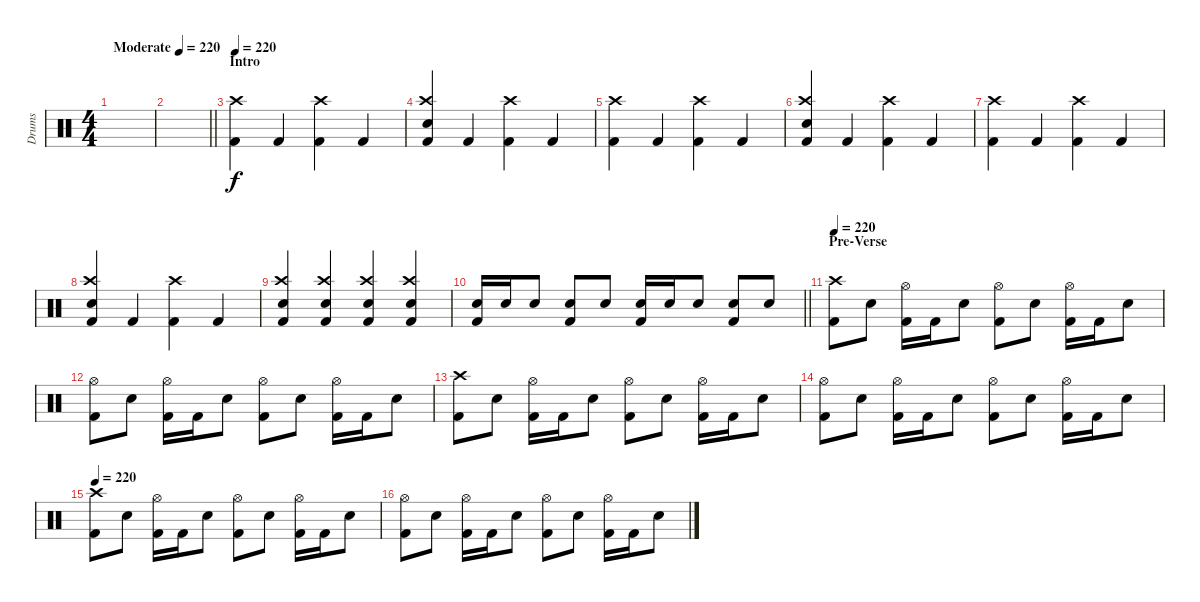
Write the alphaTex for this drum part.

\track ("Drums" "Drums") {instrument percussion}
\staff {score}
\articulation defaults
\ts (4 4)
\tempo (220 "Moderate")
\clef neutral
\ks c
|
\barLineRight lightlight
|
\section ("" "Intro")
\tempo 220
("Kick (hit) 2" "Crash high (hit)").4 "Kick (hit) 2".4 ("Kick (hit) 2" "Crash high (hit)").4 "Kick (hit) 2".4 |
("Kick (hit) 2" "Crash high (hit)" "Electric Snare (hit)").4 "Kick (hit) 2".4 ("Kick (hit) 2" "Crash high (hit)").4 "Kick (hit) 2".4 |
("Kick (hit) 2" "Crash high (hit)").4 "Kick (hit) 2".4 ("Kick (hit) 2" "Crash high (hit)").4 "Kick (hit) 2".4 |
("Kick (hit) 2" "Crash high (hit)" "Electric Snare (hit)").4 "Kick (hit) 2".4 ("Kick (hit) 2" "Crash high (hit)").4 "Kick (hit) 2".4 |
("Kick (hit) 2" "Crash high (hit)").4 "Kick (hit) 2".4 ("Kick (hit) 2" "Crash high (hit)").4 "Kick (hit) 2".4 |
("Kick (hit) 2" "Crash high (hit)" "Electric Snare (hit)").4 "Kick (hit) 2".4 ("Kick (hit) 2" "Crash high (hit)").4 "Kick (hit) 2".4 |
("Kick (hit) 2" "Crash high (hit)" "Electric Snare (hit)").4 ("Kick (hit) 2" "Crash high (hit)" "Electric Snare (hit)").4 ("Kick (hit) 2" "Crash high (hit)" "Electric Snare (hit)").4 ("Kick (hit) 2" "Crash high (hit)" "Electric Snare (hit)").4 |
\barLineRight lightlight
("Kick (hit) 2" "Electric Snare (hit)").16 "Electric Snare (hit)".16 "Electric Snare (hit)".8 ("Electric Snare (hit)" "Kick (hit) 2").8 "Electric Snare (hit)".8 ("Electric Snare (hit)" "Kick (hit) 2").16 "Electric Snare (hit)".16 "Electric Snare (hit)".8 ("Electric Snare (hit)" "Kick (hit) 2").8 "Electric Snare (hit)".8 |
\section ("" "Pre-Verse")
\tempo 220
("Crash high (hit)" "Kick (hit) 2").8 "Electric Snare (hit)".8 ("Hi-Hat (open)" "Kick (hit) 2").16 "Kick (hit) 2".16 "Electric Snare (hit)".8 ("Hi-Hat (open)" "Kick (hit) 2").8 "Electric Snare (hit)".8 ("Hi-Hat (open)" "Kick (hit) 2").16 "Kick (hit) 2".16 "Electric Snare (hit)".8 |
("Hi-Hat (open)" "Kick (hit) 2").8 "Electric Snare (hit)".8 ("Hi-Hat (open)" "Kick (hit) 2").16 "Kick (hit) 2".16 "Electric Snare (hit)".8 ("Hi-Hat (open)" "Kick (hit) 2").8 "Electric Snare (hit)".8 ("Hi-Hat (open)" "Kick (hit) 2").16 "Kick (hit) 2".16 "Electric Snare (hit)".8 |
("Crash high (hit)" "Kick (hit) 2").8 "Electric Snare (hit)".8 ("Hi-Hat (open)" "Kick (hit) 2").16 "Kick (hit) 2".16 "Electric Snare (hit)".8 ("Hi-Hat (open)" "Kick (hit) 2").8 "Electric Snare (hit)".8 ("Hi-Hat (open)" "Kick (hit) 2").16 "Kick (hit) 2".16 "Electric Snare (hit)".8 |
("Hi-Hat (open)" "Kick (hit) 2").8 "Electric Snare (hit)".8 ("Hi-Hat (open)" "Kick (hit) 2").16 "Kick (hit) 2".16 "Electric Snare (hit)".8 ("Hi-Hat (open)" "Kick (hit) 2").8 "Electric Snare (hit)".8 ("Hi-Hat (open)" "Kick (hit) 2").16 "Kick (hit) 2".16 "Electric Snare (hit)".8 |
\tempo 220
("Crash high (hit)" "Kick (hit) 2").8 "Electric Snare (hit)".8 ("Hi-Hat (open)" "Kick (hit) 2").16 "Kick (hit) 2".16 "Electric Snare (hit)".8 ("Hi-Hat (open)" "Kick (hit) 2").8 "Electric Snare (hit)".8 ("Hi-Hat (open)" "Kick (hit) 2").16 "Kick (hit) 2".16 "Electric Snare (hit)".8 |
("Hi-Hat (open)" "Kick (hit) 2").8 "Electric Snare (hit)".8 ("Hi-Hat (open)" "Kick (hit) 2").16 "Kick (hit) 2".16 "Electric Snare (hit)".8 ("Hi-Hat (open)" "Kick (hit) 2").8 "Electric Snare (hit)".8 ("Hi-Hat (open)" "Kick (hit) 2").16 "Kick (hit) 2".16 "Electric Snare (hit)".8
